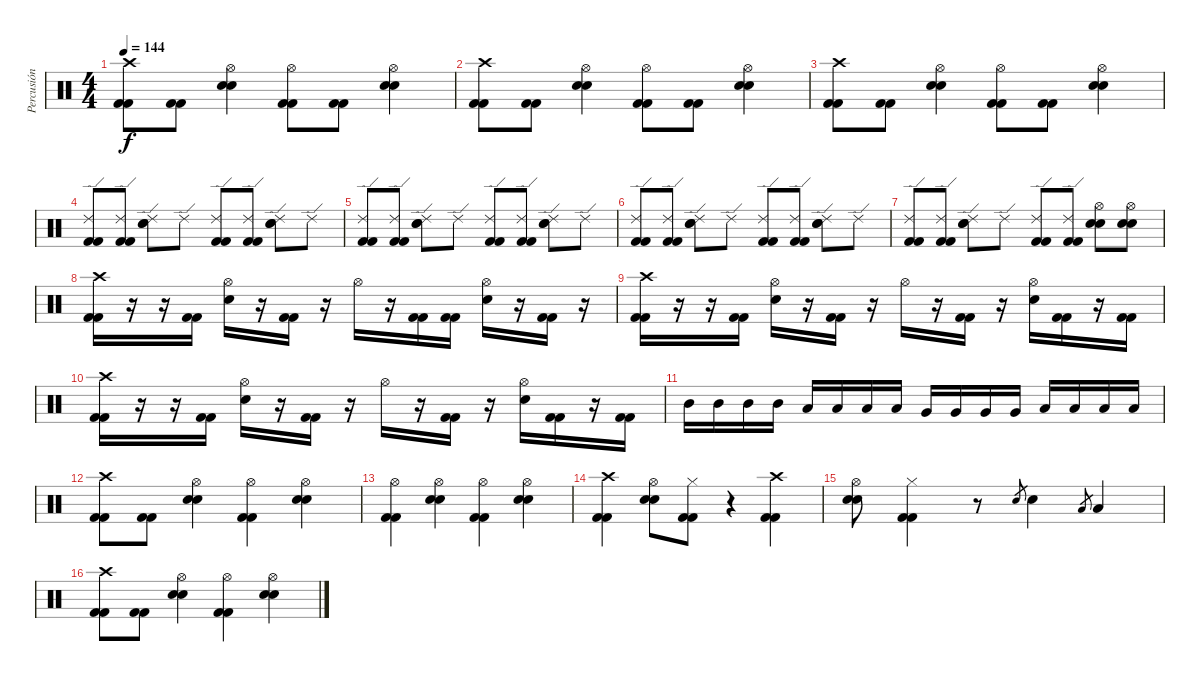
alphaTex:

\track ("Percusión" "Percusión") {instrument percussion}
\staff {score}
\articulation defaults
\ts (4 4)
\tempo 144
\clef neutral
\ks c
("Crash high (hit)" "Kick (hit) 2" "Kick (hit) 2").8{dy f} ("Kick (hit) 2" "Kick (hit) 2").8 ("Hi-Hat (open)" "Snare (hit) 2" "Snare (hit) 2").4 ("Hi-Hat (open)" "Kick (hit) 2" "Kick (hit) 2").8 ("Kick (hit) 2" "Kick (hit) 2").8 ("Hi-Hat (open)" "Snare (hit) 2" "Snare (hit) 2").4 |
("Crash high (hit)" "Kick (hit) 2" "Kick (hit) 2").8 ("Kick (hit) 2" "Kick (hit) 2").8 ("Hi-Hat (open)" "Snare (hit) 2" "Snare (hit) 2").4 ("Hi-Hat (open)" "Kick (hit) 2" "Kick (hit) 2").8 ("Kick (hit) 2" "Kick (hit) 2").8 ("Hi-Hat (open)" "Snare (hit) 2" "Snare (hit) 2").4 |
("Crash high (hit)" "Kick (hit) 2" "Kick (hit) 2").8 ("Kick (hit) 2" "Kick (hit) 2").8 ("Hi-Hat (open)" "Snare (hit) 2" "Snare (hit) 2").4 ("Hi-Hat (open)" "Kick (hit) 2" "Kick (hit) 2").8 ("Kick (hit) 2" "Kick (hit) 2").8 ("Hi-Hat (open)" "Snare (hit) 2" "Snare (hit) 2").4 |
("Ride (edge) 2" "Kick (hit) 2" "Kick (hit) 2").8 ("Ride (edge) 2" "Kick (hit) 2" "Kick (hit) 2").8 ("Ride (edge) 2" "Snare (hit) 2" "Snare (hit) 2").8 "Ride (edge) 2".8 ("Ride (edge) 2" "Kick (hit) 2" "Kick (hit) 2").8 ("Ride (edge) 2" "Kick (hit) 2" "Kick (hit) 2").8 ("Ride (edge) 2" "Snare (hit) 2" "Snare (hit) 2").8 "Ride (edge) 2".8 |
("Ride (edge) 2" "Kick (hit) 2" "Kick (hit) 2").8 ("Ride (edge) 2" "Kick (hit) 2" "Kick (hit) 2").8 ("Ride (edge) 2" "Snare (hit) 2" "Snare (hit) 2").8 "Ride (edge) 2".8 ("Ride (edge) 2" "Kick (hit) 2" "Kick (hit) 2").8 ("Ride (edge) 2" "Kick (hit) 2" "Kick (hit) 2").8 ("Ride (edge) 2" "Snare (hit) 2" "Snare (hit) 2").8 "Ride (edge) 2".8 |
("Ride (edge) 2" "Kick (hit) 2" "Kick (hit) 2").8 ("Ride (edge) 2" "Kick (hit) 2" "Kick (hit) 2").8 ("Ride (edge) 2" "Snare (hit) 2" "Snare (hit) 2").8 "Ride (edge) 2".8 ("Ride (edge) 2" "Kick (hit) 2" "Kick (hit) 2").8 ("Ride (edge) 2" "Kick (hit) 2" "Kick (hit) 2").8 ("Ride (edge) 2" "Snare (hit) 2" "Snare (hit) 2").8 "Ride (edge) 2".8 |
("Ride (edge) 2" "Kick (hit) 2" "Kick (hit) 2").8 ("Ride (edge) 2" "Kick (hit) 2" "Kick (hit) 2").8 ("Ride (edge) 2" "Snare (hit) 2" "Snare (hit) 2").8 "Ride (edge) 2".8 ("Ride (edge) 2" "Kick (hit) 2" "Kick (hit) 2").8 ("Ride (edge) 2" "Kick (hit) 2" "Kick (hit) 2").8 ("Hi-Hat (open)" "Snare (hit) 2" "Snare (hit) 2").8 ("Hi-Hat (open)" "Snare (hit) 2" "Snare (hit) 2").8 |
("Crash high (hit)" "Kick (hit) 2" "Kick (hit) 2").16 r.16 r.16 ("Kick (hit) 2" "Kick (hit) 2").16 ("Hi-Hat (open)" "Snare (hit) 2").16 r.16 ("Kick (hit) 2" "Kick (hit) 2").16 r.16 "Hi-Hat (open)".16 r.16 ("Kick (hit) 2" "Kick (hit) 2").16 ("Kick (hit) 2" "Kick (hit) 2").16 ("Hi-Hat (open)" "Snare (hit) 2").16 r.16 ("Kick (hit) 2" "Kick (hit) 2").16 r.16 |
("Crash high (hit)" "Kick (hit) 2" "Kick (hit) 2").16 r.16 r.16 ("Kick (hit) 2" "Kick (hit) 2").16 ("Hi-Hat (open)" "Snare (hit) 2").16 r.16 ("Kick (hit) 2" "Kick (hit) 2").16 r.16 "Hi-Hat (open)".16 r.16 ("Kick (hit) 2" "Kick (hit) 2").16 r.16 ("Hi-Hat (open)" "Snare (hit) 2").16 ("Kick (hit) 2" "Kick (hit) 2").16 r.16 ("Kick (hit) 2" "Kick (hit) 2").16 |
("Crash high (hit)" "Kick (hit) 2" "Kick (hit) 2").16 r.16 r.16 ("Kick (hit) 2" "Kick (hit) 2").16 ("Hi-Hat (open)" "Snare (hit) 2").16 r.16 ("Kick (hit) 2" "Kick (hit) 2").16 r.16 "Hi-Hat (open)".16 r.16 ("Kick (hit) 2" "Kick (hit) 2").16 r.16 ("Hi-Hat (open)" "Snare (hit) 2").16 ("Kick (hit) 2" "Kick (hit) 2").16 r.16 ("Kick (hit) 2" "Kick (hit) 2").16 |
"Mid Tom (hit)".16 "Mid Tom (hit)".16 "Mid Tom (hit)".16 "Mid Tom (hit)".16 "Low Tom (hit)".16 "Low Tom (hit)".16 "Low Tom (hit)".16 "Low Tom (hit)".16 "Very Low Tom (hit)".16 "Very Low Tom (hit)".16 "Very Low Tom (hit)".16 "Very Low Tom (hit)".16 "Low Floor Tom (hit)".16 "Low Floor Tom (hit)".16 "Low Floor Tom (hit)".16 "Low Floor Tom (hit)".16 |
("Crash high (hit)" "Kick (hit) 2" "Kick (hit) 2").8 ("Kick (hit) 2" "Kick (hit) 2").8 ("Hi-Hat (open)" "Snare (hit) 2" "Snare (hit) 2").4 ("Hi-Hat (open)" "Kick (hit) 2" "Kick (hit) 2").4 ("Hi-Hat (open)" "Snare (hit) 2" "Snare (hit) 2").4 |
("Hi-Hat (open)" "Kick (hit) 2" "Kick (hit) 2").4 ("Hi-Hat (open)" "Snare (hit) 2" "Snare (hit) 2").4 ("Hi-Hat (open)" "Kick (hit) 2" "Kick (hit) 2").4 ("Hi-Hat (open)" "Snare (hit) 2" "Snare (hit) 2").4 |
("Crash high (hit)" "Kick (hit) 2" "Kick (hit) 2").4 ("Hi-Hat (open)" "Snare (hit) 2" "Snare (hit) 2").8 ("Hi-Hat (closed)" "Kick (hit) 2" "Kick (hit) 2").8 r.4 ("Crash high (hit)" "Kick (hit) 2" "Kick (hit) 2").4 |
("Hi-Hat (open)" "Snare (hit) 2" "Snare (hit) 2").8 ("Hi-Hat (closed)" "Kick (hit) 2" "Kick (hit) 2").4 r.8 "Snare (hit) 2".8{gr} "Snare (hit) 2".4 "Low Tom (hit)".8{gr} "Low Tom (hit)".4 |
("Crash high (hit)" "Kick (hit) 2" "Kick (hit) 2").8 ("Kick (hit) 2" "Kick (hit) 2").8 ("Hi-Hat (open)" "Snare (hit) 2" "Snare (hit) 2").4 ("Hi-Hat (open)" "Kick (hit) 2" "Kick (hit) 2").4 ("Hi-Hat (open)" "Snare (hit) 2" "Snare (hit) 2").4
